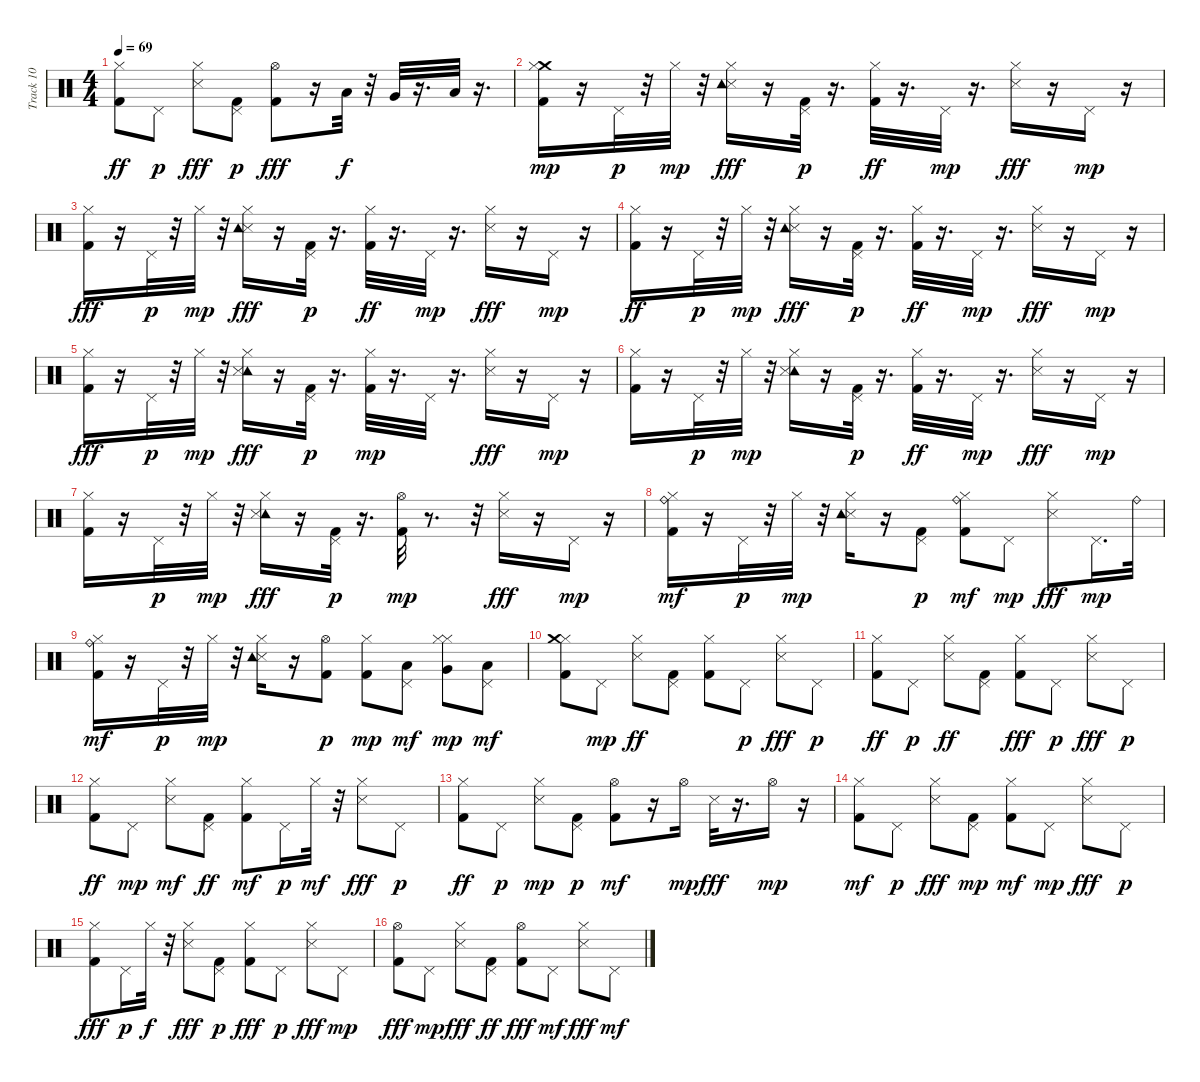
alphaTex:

\track ("Track 10" "Track 10") {instrument percussion}
\staff {score}
\articulation defaults
\ts (4 4)
\tempo 69
\clef neutral
\ks c
("Hi-Hat (closed)" "Kick (hit) 2").8{dy ff} "Pedal Hi-Hat (hit)".8{dy p} ("Hi-Hat (closed)" "Snare (side stick) 3").8{dy fff} ("Kick (hit) 2" "Pedal Hi-Hat (hit)").8{dy p} ("Hi-Hat (open)" "Kick (hit) 2").8{dy fff} r.16 "Low Tom (hit)".32{dy f} r.32 "Very Low Tom (hit)".32 r.16{d} "Low Floor Tom (hit)".32 r.16{d} |
("Crash medium (hit)" "Kick (hit) 2" "Hi-Hat (closed)").16{dy mp} r.16 "Pedal Hi-Hat (hit)".32{dy p} r.32 "Hi-Hat (closed)".32{dy mp} r.32 ("Hi-Hat (closed)" "Snare (side stick) 3" "Tambourine (hit)").16{dy fff} r.16 ("Kick (hit) 2" "Pedal Hi-Hat (hit)").32{dy p} r.16{d} ("Hi-Hat (closed)" "Kick (hit) 2").32{dy ff} r.16{d} "Pedal Hi-Hat (hit)".32{dy mp} r.16{d} ("Hi-Hat (closed)" "Snare (side stick) 3").16{dy fff} r.16 "Pedal Hi-Hat (hit)".16{dy mp} r.16 |
("Hi-Hat (closed)" "Kick (hit) 2").16{dy fff} r.16 "Pedal Hi-Hat (hit)".32{dy p} r.32 "Hi-Hat (closed)".32{dy mp} r.32 ("Hi-Hat (closed)" "Snare (side stick) 3" "Tambourine (hit)").16{dy fff} r.16 ("Kick (hit) 2" "Pedal Hi-Hat (hit)").32{dy p} r.16{d} ("Hi-Hat (closed)" "Kick (hit) 2").32{dy ff} r.16{d} "Pedal Hi-Hat (hit)".32{dy mp} r.16{d} ("Hi-Hat (closed)" "Snare (side stick) 3").16{dy fff} r.16 "Pedal Hi-Hat (hit)".16{dy mp} r.16 |
("Hi-Hat (closed)" "Kick (hit) 2").16{dy ff} r.16 "Pedal Hi-Hat (hit)".32{dy p} r.32 "Hi-Hat (closed)".32{dy mp} r.32 ("Snare (side stick) 3" "Hi-Hat (closed)" "Tambourine (hit)").16{dy fff} r.16 ("Kick (hit) 2" "Pedal Hi-Hat (hit)").32{dy p} r.16{d} ("Hi-Hat (closed)" "Kick (hit) 2").32{dy ff} r.16{d} "Pedal Hi-Hat (hit)".32{dy mp} r.16{d} ("Hi-Hat (closed)" "Snare (side stick) 3").16{dy fff} r.16 "Pedal Hi-Hat (hit)".16{dy mp} r.16 |
("Hi-Hat (closed)" "Kick (hit) 2").16{dy fff} r.16 "Pedal Hi-Hat (hit)".32{dy p} r.32 "Hi-Hat (closed)".32{dy mp} r.32 ("Hi-Hat (closed)" "Tambourine (hit)" "Snare (side stick) 3").16{dy fff} r.16 ("Kick (hit) 2" "Pedal Hi-Hat (hit)").32{dy p} r.16{d} ("Kick (hit) 2" "Hi-Hat (closed)").32{dy mp} r.16{d} "Pedal Hi-Hat (hit)".32 r.16{d} ("Hi-Hat (closed)" "Snare (side stick) 3").16{dy fff} r.16 "Pedal Hi-Hat (hit)".16{dy mp} r.16 |
("Kick (hit) 2" "Hi-Hat (closed)").16 r.16 "Pedal Hi-Hat (hit)".32{dy p} r.32 "Hi-Hat (closed)".32{dy mp} r.32 ("Tambourine (hit)" "Snare (side stick) 3" "Hi-Hat (closed)").16 r.16 ("Kick (hit) 2" "Pedal Hi-Hat (hit)").32{dy p} r.16{d} ("Hi-Hat (closed)" "Kick (hit) 2").32{dy ff} r.16{d} "Pedal Hi-Hat (hit)".32{dy mp} r.16{d} ("Hi-Hat (closed)" "Snare (side stick) 3").16{dy fff} r.16 "Pedal Hi-Hat (hit)".16{dy mp} r.16 |
("Kick (hit) 2" "Hi-Hat (closed)").16 r.16 "Pedal Hi-Hat (hit)".32{dy p} r.32 "Hi-Hat (closed)".32{dy mp} r.32 ("Hi-Hat (closed)" "Tambourine (hit)" "Snare (side stick) 3").16{dy fff} r.16 ("Kick (hit) 2" "Pedal Hi-Hat (hit)").32{dy p} r.16{d} ("Kick (hit) 2" "Hi-Hat (open)").32{dy mp} r.8{d} r.32 ("Hi-Hat (closed)" "Snare (side stick) 3").16{dy fff} r.16 "Pedal Hi-Hat (hit)".16{dy mp} r.16 |
("Kick (hit) 2" "Hi-Hat (closed)" "Ride (bell)").16{dy mf} r.16 "Pedal Hi-Hat (hit)".32{dy p} r.32 "Hi-Hat (closed)".32{dy mp} r.32 ("Snare (side stick) 3" "Tambourine (hit)" "Hi-Hat (closed)").16 r.16 ("Kick (hit) 2" "Pedal Hi-Hat (hit)").8{dy p} ("Kick (hit) 2" "Hi-Hat (closed)" "Ride (bell)").8{dy mf} "Pedal Hi-Hat (hit)".8{dy mp} ("Hi-Hat (closed)" "Snare (side stick) 3").8{dy fff} "Pedal Hi-Hat (hit)".16{d dy mp} "Ride (bell)".32 |
("Kick (hit) 2" "Hi-Hat (closed)" "Ride (bell)").16{dy mf} r.16 "Pedal Hi-Hat (hit)".32{dy p} r.32 "Hi-Hat (closed)".32{dy mp} r.32 ("Snare (side stick) 3" "Tambourine (hit)" "Hi-Hat (closed)").16 r.16 ("Kick (hit) 2" "Hi-Hat (open)").8{dy p} ("Kick (hit) 2" "Hi-Hat (closed)").8{dy mp} ("Pedal Hi-Hat (hit)" "Low Tom (hit)").8{dy mf} ("Hi-Hat (closed)" "Very Low Tom (hit)" "Hi-Hat (closed)").8{dy mp} ("Pedal Hi-Hat (hit)" "Low Floor Tom (hit)").8{dy mf} |
("Hi-Hat (closed)" "Kick (hit) 2" "Crash medium (hit)").8 "Pedal Hi-Hat (hit)".8{dy mp} ("Hi-Hat (closed)" "Snare (side stick) 3").8{dy ff} ("Pedal Hi-Hat (hit)" "Kick (hit) 2").8 ("Hi-Hat (closed)" "Kick (hit) 2").8 "Pedal Hi-Hat (hit)".8{dy p} ("Hi-Hat (closed)" "Snare (side stick) 3").8{dy fff} "Pedal Hi-Hat (hit)".8{dy p} |
("Hi-Hat (closed)" "Kick (hit) 2").8{dy ff} "Pedal Hi-Hat (hit)".8{dy p} ("Hi-Hat (closed)" "Snare (side stick) 3").8{dy ff} ("Pedal Hi-Hat (hit)" "Kick (hit) 2").8 ("Hi-Hat (closed)" "Kick (hit) 2").8{dy fff} "Pedal Hi-Hat (hit)".8{dy p} ("Hi-Hat (closed)" "Snare (side stick) 3").8{dy fff} "Pedal Hi-Hat (hit)".8{dy p} |
("Hi-Hat (closed)" "Kick (hit) 2").8{dy ff} "Pedal Hi-Hat (hit)".8{dy mp} ("Snare (side stick) 3" "Hi-Hat (closed)").8{dy mf} ("Pedal Hi-Hat (hit)" "Kick (hit) 2").8{dy ff} ("Kick (hit) 2" "Hi-Hat (closed)").8{dy mf} "Pedal Hi-Hat (hit)".16{dy p} "Hi-Hat (closed)".32{dy mf} r.32 ("Hi-Hat (closed)" "Snare (side stick) 3").8{dy fff} "Pedal Hi-Hat (hit)".8{dy p} |
("Hi-Hat (closed)" "Kick (hit) 2").8{dy ff} "Pedal Hi-Hat (hit)".8{dy p} ("Snare (side stick) 3" "Hi-Hat (closed)").8{dy mp} ("Kick (hit) 2" "Pedal Hi-Hat (hit)").8{dy p} ("Kick (hit) 2" "Hi-Hat (open)").8{dy mf} r.16 "Hi-Hat (open)".16{dy mp} "Snare (side stick) 3".32{dy fff} r.16{d} "Hi-Hat (open)".16{dy mp} r.16 |
("Kick (hit) 2" "Hi-Hat (closed)").8{dy mf} "Pedal Hi-Hat (hit)".8{dy p} ("Snare (side stick) 3" "Hi-Hat (closed)").8{dy fff} ("Kick (hit) 2" "Pedal Hi-Hat (hit)").8{dy mp} ("Kick (hit) 2" "Hi-Hat (closed)").8{dy mf} "Pedal Hi-Hat (hit)".8{dy mp} ("Hi-Hat (closed)" "Snare (side stick) 3").8{dy fff} "Pedal Hi-Hat (hit)".8{dy p} |
("Hi-Hat (closed)" "Kick (hit) 2").8{dy fff} "Pedal Hi-Hat (hit)".16{dy p} "Hi-Hat (closed)".32{dy f} r.32 ("Hi-Hat (closed)" "Snare (side stick) 3").8{dy fff} ("Kick (hit) 2" "Pedal Hi-Hat (hit)").8{dy p} ("Kick (hit) 2" "Hi-Hat (closed)").8{dy fff} "Pedal Hi-Hat (hit)".8{dy p} ("Snare (side stick) 3" "Hi-Hat (closed)").8{dy fff} "Pedal Hi-Hat (hit)".8{dy mp} |
("Hi-Hat (open)" "Kick (hit) 2").8{dy fff} "Pedal Hi-Hat (hit)".8{dy mp} ("Hi-Hat (closed)" "Snare (side stick) 3").8{dy fff} ("Pedal Hi-Hat (hit)" "Kick (hit) 2").8{dy ff} ("Hi-Hat (open)" "Kick (hit) 2").8{dy fff} "Pedal Hi-Hat (hit)".8{dy mf} ("Snare (side stick) 3" "Hi-Hat (closed)").8{dy fff} "Pedal Hi-Hat (hit)".8{dy mf}
